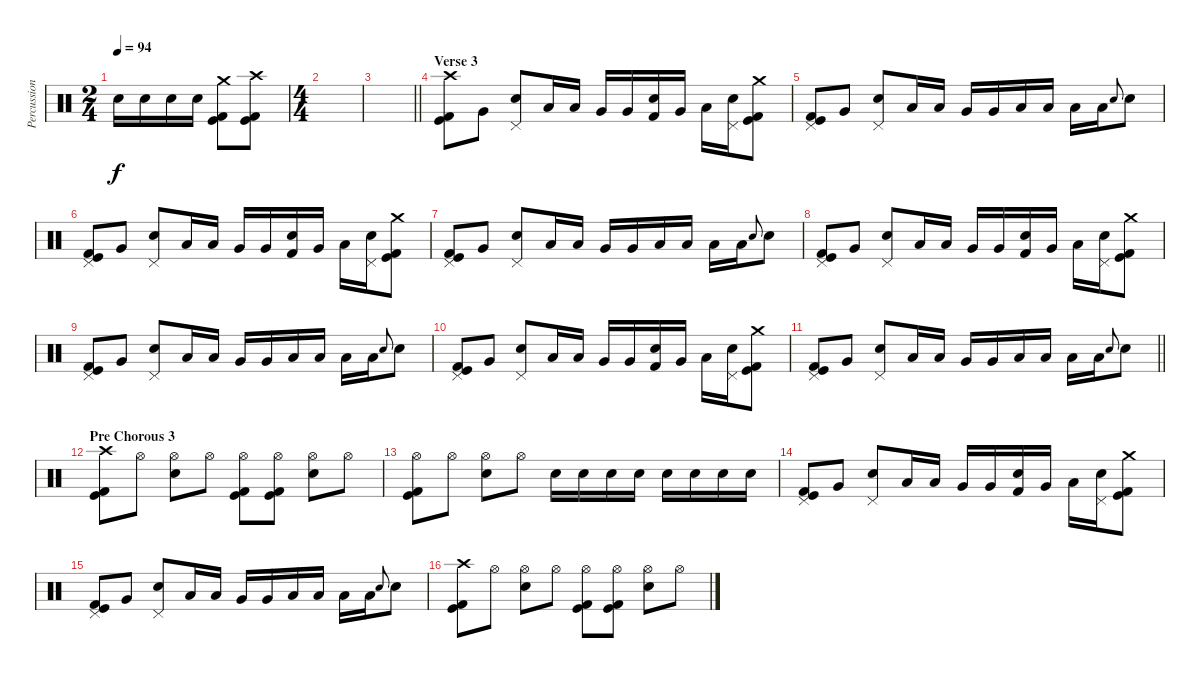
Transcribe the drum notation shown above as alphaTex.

\track ("Percussion" "Percussion") {instrument percussion}
\staff {score}
\articulation defaults
\ts (2 4)
\tempo 94
\clef neutral
\ks c "Electric Snare (hit)".16{dy f} "Electric Snare (hit)".16 "Electric Snare (hit)".16 "Electric Snare (hit)".16
("Crash medium (hit)" "Kick (hit)" "Kick (hit) 2").8 ("Crash high (hit)" "Kick (hit)" "Kick (hit) 2").8 |
\ts (4 4)
|
\barLineRight lightlight
|
\section ("" "Verse 3")
("Crash high (hit)" "Kick (hit)" "Kick (hit) 2").8 "Very Low Tom (hit)".8 ("Pedal Hi-Hat (hit)" "Electric Snare (hit)").8 "Low Tom (hit)".16 "Low Tom (hit)".16 "Very Low Tom (hit)".16 "Very Low Tom (hit)".16 ("Electric Snare (hit)" "Kick (hit) 2").16 "Very Low Tom (hit)".16 "Low Floor Tom (hit)".16 ("Pedal Hi-Hat (hit)" "Electric Snare (hit)").16 ("Crash medium (hit)" "Kick (hit)" "Kick (hit) 2").8 |
("Pedal Hi-Hat (hit)" "Kick (hit)" "Kick (hit) 2").8 "Very Low Tom (hit)".8 ("Pedal Hi-Hat (hit)" "Electric Snare (hit)").8 "Low Tom (hit)".16 "Low Tom (hit)".16 "Very Low Tom (hit)".16 "Very Low Tom (hit)".16 "Low Floor Tom (hit)".16 "Low Floor Tom (hit)".16 "Low Tom (hit)".16 "Low Tom (hit)".16 "Electric Snare (hit)".8{gr onbeat} "Electric Snare (hit)".8 |
("Pedal Hi-Hat (hit)" "Kick (hit)" "Kick (hit) 2").8 "Very Low Tom (hit)".8 ("Pedal Hi-Hat (hit)" "Electric Snare (hit)").8 "Low Tom (hit)".16 "Low Tom (hit)".16 "Very Low Tom (hit)".16 "Very Low Tom (hit)".16 ("Electric Snare (hit)" "Kick (hit) 2").16 "Very Low Tom (hit)".16 "Low Floor Tom (hit)".16 ("Pedal Hi-Hat (hit)" "Electric Snare (hit)").16 ("Crash medium (hit)" "Kick (hit)" "Kick (hit) 2").8 |
("Pedal Hi-Hat (hit)" "Kick (hit)" "Kick (hit) 2").8 "Very Low Tom (hit)".8 ("Pedal Hi-Hat (hit)" "Electric Snare (hit)").8 "Low Tom (hit)".16 "Low Tom (hit)".16 "Very Low Tom (hit)".16 "Very Low Tom (hit)".16 "Low Floor Tom (hit)".16 "Low Floor Tom (hit)".16 "Low Tom (hit)".16 "Low Tom (hit)".16 "Electric Snare (hit)".8{gr onbeat} "Electric Snare (hit)".8 |
("Pedal Hi-Hat (hit)" "Kick (hit)" "Kick (hit) 2").8 "Very Low Tom (hit)".8 ("Pedal Hi-Hat (hit)" "Electric Snare (hit)").8 "Low Tom (hit)".16 "Low Tom (hit)".16 "Very Low Tom (hit)".16 "Very Low Tom (hit)".16 ("Electric Snare (hit)" "Kick (hit) 2").16 "Very Low Tom (hit)".16 "Low Floor Tom (hit)".16 ("Pedal Hi-Hat (hit)" "Electric Snare (hit)").16 ("Crash medium (hit)" "Kick (hit)" "Kick (hit) 2").8 |
("Pedal Hi-Hat (hit)" "Kick (hit)" "Kick (hit) 2").8 "Very Low Tom (hit)".8 ("Pedal Hi-Hat (hit)" "Electric Snare (hit)").8 "Low Tom (hit)".16 "Low Tom (hit)".16 "Very Low Tom (hit)".16 "Very Low Tom (hit)".16 "Low Floor Tom (hit)".16 "Low Floor Tom (hit)".16 "Low Tom (hit)".16 "Low Tom (hit)".16 "Electric Snare (hit)".8{gr onbeat} "Electric Snare (hit)".8 |
("Pedal Hi-Hat (hit)" "Kick (hit)" "Kick (hit) 2").8 "Very Low Tom (hit)".8 ("Pedal Hi-Hat (hit)" "Electric Snare (hit)").8 "Low Tom (hit)".16 "Low Tom (hit)".16 "Very Low Tom (hit)".16 "Very Low Tom (hit)".16 ("Electric Snare (hit)" "Kick (hit) 2").16 "Very Low Tom (hit)".16 "Low Floor Tom (hit)".16 ("Pedal Hi-Hat (hit)" "Electric Snare (hit)").16 ("Crash medium (hit)" "Kick (hit)" "Kick (hit) 2").8 |
\barLineRight lightlight
("Pedal Hi-Hat (hit)" "Kick (hit)" "Kick (hit) 2").8 "Very Low Tom (hit)".8 ("Pedal Hi-Hat (hit)" "Electric Snare (hit)").8 "Low Tom (hit)".16 "Low Tom (hit)".16 "Very Low Tom (hit)".16 "Very Low Tom (hit)".16 "Low Floor Tom (hit)".16 "Low Floor Tom (hit)".16 "Low Tom (hit)".16 "Low Tom (hit)".16 "Electric Snare (hit)".8{gr onbeat} "Electric Snare (hit)".8 |
\section ("" "Pre Chorous 3")
("Crash high (hit)" "Kick (hit)" "Kick (hit) 2").8 "Hi-Hat (open)".8 ("Hi-Hat (open)" "Electric Snare (hit)").8 "Hi-Hat (open)".8 ("Hi-Hat (open)" "Kick (hit)" "Kick (hit) 2").8 ("Hi-Hat (open)" "Kick (hit)" "Kick (hit) 2").8 ("Hi-Hat (open)" "Electric Snare (hit)").8 "Hi-Hat (open)".8 |
("Hi-Hat (open)" "Kick (hit)" "Kick (hit) 2").8 "Hi-Hat (open)".8 ("Hi-Hat (open)" "Electric Snare (hit)").8 "Hi-Hat (open)".8 "Electric Snare (hit)".16 "Electric Snare (hit)".16 "Electric Snare (hit)".16 "Electric Snare (hit)".16 "Electric Snare (hit)".16 "Electric Snare (hit)".16 "Electric Snare (hit)".16 "Electric Snare (hit)".16 |
("Pedal Hi-Hat (hit)" "Kick (hit)" "Kick (hit) 2").8 "Very Low Tom (hit)".8 ("Pedal Hi-Hat (hit)" "Electric Snare (hit)").8 "Low Tom (hit)".16 "Low Tom (hit)".16 "Very Low Tom (hit)".16 "Very Low Tom (hit)".16 ("Electric Snare (hit)" "Kick (hit) 2").16 "Very Low Tom (hit)".16 "Low Floor Tom (hit)".16 ("Pedal Hi-Hat (hit)" "Electric Snare (hit)").16 ("Crash medium (hit)" "Kick (hit)" "Kick (hit) 2").8 |
("Pedal Hi-Hat (hit)" "Kick (hit)" "Kick (hit) 2").8 "Very Low Tom (hit)".8 ("Pedal Hi-Hat (hit)" "Electric Snare (hit)").8 "Low Tom (hit)".16 "Low Tom (hit)".16 "Very Low Tom (hit)".16 "Very Low Tom (hit)".16 "Low Floor Tom (hit)".16 "Low Floor Tom (hit)".16 "Low Tom (hit)".16 "Low Tom (hit)".16 "Electric Snare (hit)".8{gr onbeat} "Electric Snare (hit)".8 |
("Crash high (hit)" "Kick (hit)" "Kick (hit) 2").8 "Hi-Hat (open)".8 ("Hi-Hat (open)" "Electric Snare (hit)").8 "Hi-Hat (open)".8 ("Hi-Hat (open)" "Kick (hit)" "Kick (hit) 2").8 ("Hi-Hat (open)" "Kick (hit)" "Kick (hit) 2").8 ("Hi-Hat (open)" "Electric Snare (hit)").8 "Hi-Hat (open)".8
